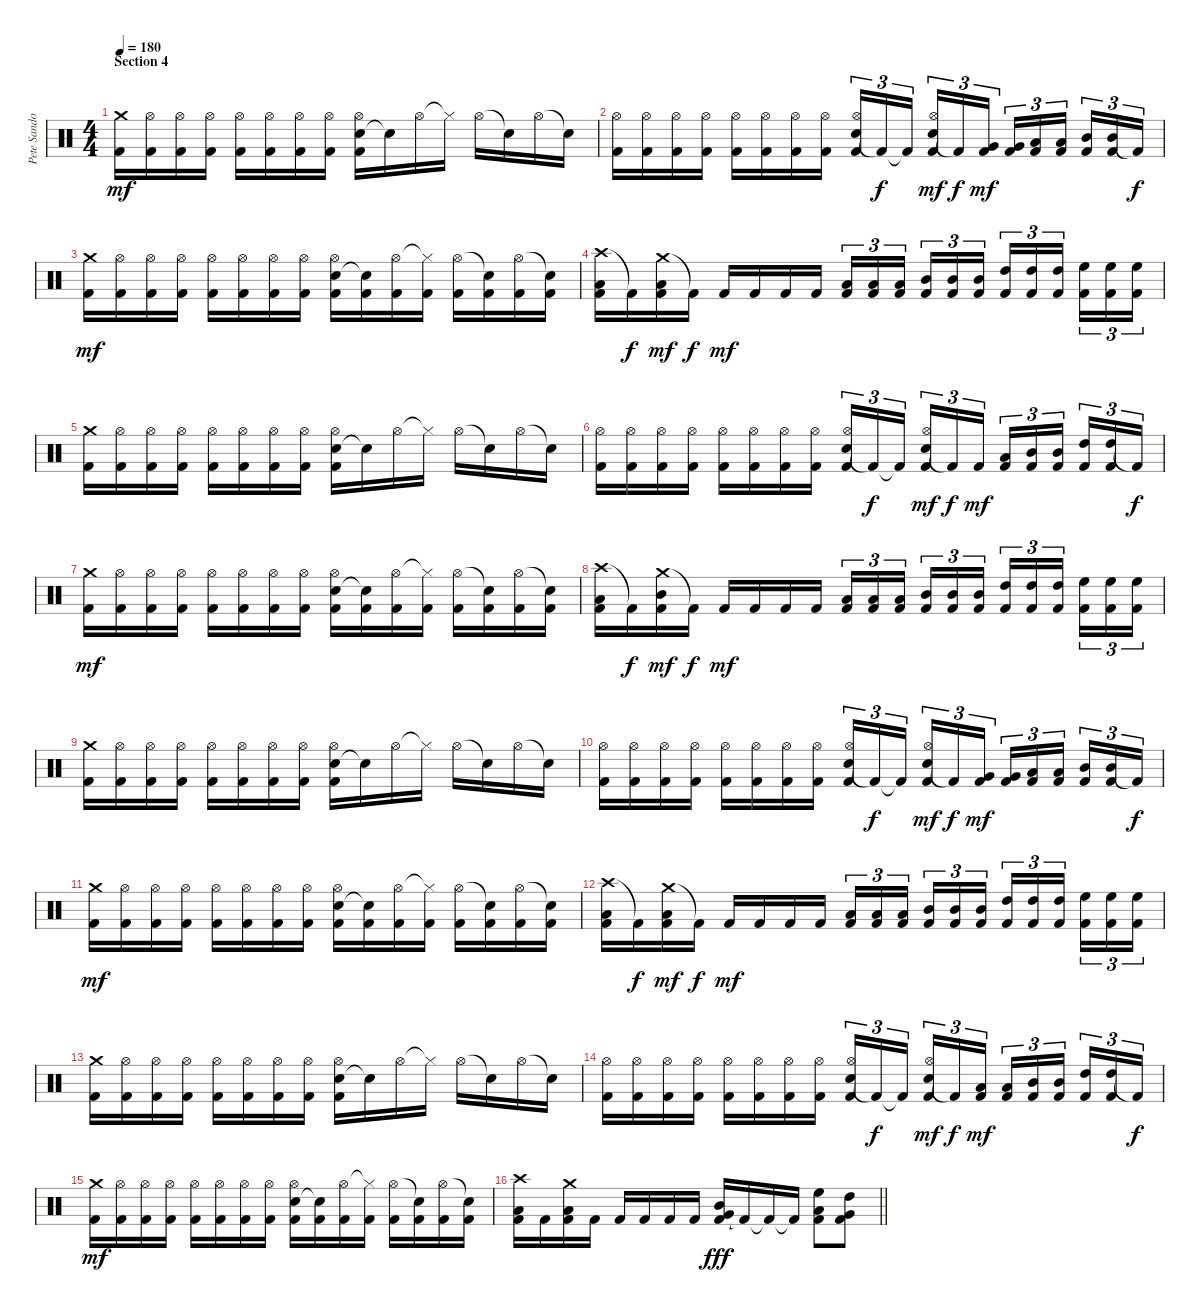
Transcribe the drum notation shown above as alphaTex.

\track ("Pete Sandoval" "Pete Sando") {instrument percussion}
\staff {score}
\articulation defaults
\ts (4 4)
\section ("" "Section 4")
\tempo 180
\clef neutral
\ks c
("Crash medium (hit)" "Kick (hit) 2").16{dy mf} ("Hi-Hat (open)" "Kick (hit) 2").16 ("Hi-Hat (open)" "Kick (hit) 2").16 ("Hi-Hat (open)" "Kick (hit) 2").16 ("Hi-Hat (open)" "Kick (hit) 2").16 ("Hi-Hat (open)" "Kick (hit) 2").16 ("Hi-Hat (open)" "Kick (hit) 2").16 ("Hi-Hat (open)" "Kick (hit) 2").16 ("Snare (hit) 2" "Hi-Hat (open)" "Kick (hit) 2").16 "Snare (hit)"{t}.16 "Hi-Hat (open)".16 "Hi-Hat (closed)"{t}.16 "Hi-Hat (open)".16 "Snare (hit)"{t}.16 "Hi-Hat (open)".16 "Snare (hit)"{t}.16 |
("Hi-Hat (open)" "Kick (hit) 2").16 ("Hi-Hat (open)" "Kick (hit) 2").16 ("Hi-Hat (open)" "Kick (hit) 2").16 ("Hi-Hat (open)" "Kick (hit) 2").16 ("Hi-Hat (open)" "Kick (hit) 2").16 ("Hi-Hat (open)" "Kick (hit) 2").16 ("Hi-Hat (open)" "Kick (hit) 2").16 ("Hi-Hat (open)" "Kick (hit) 2").16 ("Snare (hit) 2" "Hi-Hat (open)" "Kick (hit) 2").16{tu (3 2)} "Kick (hit) 2"{t}.16{tu (3 2) dy f} "Kick (hit) 2"{t}.16{tu (3 2) beam splitsecondary} ("Snare (hit) 2" "Hi-Hat (open)" "Kick (hit) 2").16{tu (3 2) dy mf} "Kick (hit) 2"{t}.16{tu (3 2) dy f} ("Very Low Tom (hit)" "Kick (hit) 2").16{tu (3 2) dy mf} ("Very Low Tom (hit)" "Kick (hit) 2").16{tu (3 2)} ("Low Tom (hit)" "Kick (hit) 2").16{tu (3 2)} ("Low Tom (hit)" "Kick (hit) 2").16{tu (3 2) beam splitsecondary} ("Mid Tom (hit)" "Kick (hit) 2").16{tu (3 2)} ("Mid Tom (hit)" "Kick (hit) 2").16{tu (3 2)} "Kick (hit) 2"{t}.16{tu (3 2) dy f} |
("Crash medium (hit)" "Kick (hit) 2").16{dy mf} ("Hi-Hat (open)" "Kick (hit) 2").16 ("Hi-Hat (open)" "Kick (hit) 2").16 ("Hi-Hat (open)" "Kick (hit) 2").16 ("Hi-Hat (open)" "Kick (hit) 2").16 ("Hi-Hat (open)" "Kick (hit) 2").16 ("Hi-Hat (open)" "Kick (hit) 2").16 ("Hi-Hat (open)" "Kick (hit) 2").16 ("Snare (hit) 2" "Hi-Hat (open)" "Kick (hit) 2").16 ("Snare (hit)"{t} "Kick (hit) 2").16 ("Hi-Hat (open)" "Kick (hit) 2").16 ("Hi-Hat (closed)"{t} "Kick (hit) 2").16 ("Hi-Hat (open)" "Kick (hit) 2").16 ("Snare (hit)"{t} "Kick (hit) 2").16 ("Hi-Hat (open)" "Kick (hit) 2").16 ("Snare (hit)"{t} "Kick (hit) 2").16 |
("Crash high (hit)" "Low Tom (hit)" "Kick (hit) 2").16 "Kick (hit) 2"{t}.16{dy f} ("Crash medium (hit)" "Low Tom (hit)" "Kick (hit) 2").16{dy mf} "Kick (hit) 2"{t}.16{dy f} "Kick (hit) 2".16{dy mf} "Kick (hit) 2".16 "Kick (hit) 2".16 "Kick (hit) 2".16 ("Low Tom (hit)" "Kick (hit) 2").16{tu (3 2)} ("Low Tom (hit)" "Kick (hit) 2").16{tu (3 2)} ("Low Tom (hit)" "Kick (hit) 2").16{tu (3 2) beam splitsecondary} ("Mid Tom (hit)" "Kick (hit) 2").16{tu (3 2)} ("Mid Tom (hit)" "Kick (hit) 2").16{tu (3 2)} ("Mid Tom (hit)" "Kick (hit) 2").16{tu (3 2)} ("High Tom (hit)" "Kick (hit) 2").16{tu (3 2)} ("High Tom (hit)" "Kick (hit) 2").16{tu (3 2)} ("High Tom (hit)" "Kick (hit) 2").16{tu (3 2) beam splitsecondary} ("High Floor Tom (hit)" "Kick (hit) 2").16{tu (3 2)} ("High Floor Tom (hit)" "Kick (hit) 2").16{tu (3 2)} ("High Floor Tom (hit)" "Kick (hit) 2").16{tu (3 2)} |
("Crash medium (hit)" "Kick (hit) 2").16 ("Hi-Hat (open)" "Kick (hit) 2").16 ("Hi-Hat (open)" "Kick (hit) 2").16 ("Hi-Hat (open)" "Kick (hit) 2").16 ("Hi-Hat (open)" "Kick (hit) 2").16 ("Hi-Hat (open)" "Kick (hit) 2").16 ("Hi-Hat (open)" "Kick (hit) 2").16 ("Hi-Hat (open)" "Kick (hit) 2").16 ("Snare (hit) 2" "Hi-Hat (open)" "Kick (hit) 2").16 "Snare (hit)"{t}.16 "Hi-Hat (open)".16 "Hi-Hat (closed)"{t}.16 "Hi-Hat (open)".16 "Snare (hit)"{t}.16 "Hi-Hat (open)".16 "Snare (hit)"{t}.16 |
("Hi-Hat (open)" "Kick (hit) 2").16 ("Hi-Hat (open)" "Kick (hit) 2").16 ("Hi-Hat (open)" "Kick (hit) 2").16 ("Hi-Hat (open)" "Kick (hit) 2").16 ("Hi-Hat (open)" "Kick (hit) 2").16 ("Hi-Hat (open)" "Kick (hit) 2").16 ("Hi-Hat (open)" "Kick (hit) 2").16 ("Hi-Hat (open)" "Kick (hit) 2").16 ("Snare (hit) 2" "Hi-Hat (open)" "Kick (hit) 2").16{tu (3 2)} "Kick (hit) 2"{t}.16{tu (3 2) dy f} "Kick (hit) 2"{t}.16{tu (3 2) beam splitsecondary} ("Snare (hit) 2" "Hi-Hat (open)" "Kick (hit) 2").16{tu (3 2) dy mf} "Kick (hit) 2"{t}.16{tu (3 2) dy f} "Kick (hit) 2".16{tu (3 2) dy mf} ("Low Tom (hit)" "Kick (hit) 2").16{tu (3 2)} ("Mid Tom (hit)" "Kick (hit) 2").16{tu (3 2)} ("Mid Tom (hit)" "Kick (hit) 2").16{tu (3 2) beam splitsecondary} ("High Tom (hit)" "Kick (hit) 2").16{tu (3 2)} ("High Tom (hit)" "Kick (hit) 2").16{tu (3 2)} "Kick (hit) 2"{t}.16{tu (3 2) dy f} |
("Crash medium (hit)" "Kick (hit) 2").16{dy mf} ("Hi-Hat (open)" "Kick (hit) 2").16 ("Hi-Hat (open)" "Kick (hit) 2").16 ("Hi-Hat (open)" "Kick (hit) 2").16 ("Hi-Hat (open)" "Kick (hit) 2").16 ("Hi-Hat (open)" "Kick (hit) 2").16 ("Hi-Hat (open)" "Kick (hit) 2").16 ("Hi-Hat (open)" "Kick (hit) 2").16 ("Snare (hit) 2" "Hi-Hat (open)" "Kick (hit) 2").16 ("Snare (hit)"{t} "Kick (hit) 2").16 ("Hi-Hat (open)" "Kick (hit) 2").16 ("Hi-Hat (closed)"{t} "Kick (hit) 2").16 ("Hi-Hat (open)" "Kick (hit) 2").16 ("Snare (hit)"{t} "Kick (hit) 2").16 ("Hi-Hat (open)" "Kick (hit) 2").16 ("Snare (hit)"{t} "Kick (hit) 2").16 |
("Crash high (hit)" "Low Tom (hit)" "Kick (hit) 2").16 "Kick (hit) 2"{t}.16{dy f} ("Crash medium (hit)" "Mid Tom (hit)" "Kick (hit) 2").16{dy mf} "Kick (hit) 2"{t}.16{dy f} "Kick (hit) 2".16{dy mf} "Kick (hit) 2".16 "Kick (hit) 2".16 "Kick (hit) 2".16 ("Low Tom (hit)" "Kick (hit) 2").16{tu (3 2)} ("Low Tom (hit)" "Kick (hit) 2").16{tu (3 2)} ("Low Tom (hit)" "Kick (hit) 2").16{tu (3 2) beam splitsecondary} ("Mid Tom (hit)" "Kick (hit) 2").16{tu (3 2)} ("Mid Tom (hit)" "Kick (hit) 2").16{tu (3 2)} ("Mid Tom (hit)" "Kick (hit) 2").16{tu (3 2)} ("High Tom (hit)" "Kick (hit) 2").16{tu (3 2)} ("High Tom (hit)" "Kick (hit) 2").16{tu (3 2)} ("High Tom (hit)" "Kick (hit) 2").16{tu (3 2) beam splitsecondary} ("High Floor Tom (hit)" "Kick (hit) 2").16{tu (3 2)} ("High Floor Tom (hit)" "Kick (hit) 2").16{tu (3 2)} ("High Floor Tom (hit)" "Kick (hit) 2").16{tu (3 2)} |
("Crash medium (hit)" "Kick (hit) 2").16 ("Hi-Hat (open)" "Kick (hit) 2").16 ("Hi-Hat (open)" "Kick (hit) 2").16 ("Hi-Hat (open)" "Kick (hit) 2").16 ("Hi-Hat (open)" "Kick (hit) 2").16 ("Hi-Hat (open)" "Kick (hit) 2").16 ("Hi-Hat (open)" "Kick (hit) 2").16 ("Hi-Hat (open)" "Kick (hit) 2").16 ("Snare (hit) 2" "Hi-Hat (open)" "Kick (hit) 2").16 "Snare (hit)"{t}.16 "Hi-Hat (open)".16 "Hi-Hat (closed)"{t}.16 "Hi-Hat (open)".16 "Snare (hit)"{t}.16 "Hi-Hat (open)".16 "Snare (hit)"{t}.16 |
("Hi-Hat (open)" "Kick (hit) 2").16 ("Hi-Hat (open)" "Kick (hit) 2").16 ("Hi-Hat (open)" "Kick (hit) 2").16 ("Hi-Hat (open)" "Kick (hit) 2").16 ("Hi-Hat (open)" "Kick (hit) 2").16 ("Hi-Hat (open)" "Kick (hit) 2").16 ("Hi-Hat (open)" "Kick (hit) 2").16 ("Hi-Hat (open)" "Kick (hit) 2").16 ("Snare (hit) 2" "Hi-Hat (open)" "Kick (hit) 2").16{tu (3 2)} "Kick (hit) 2"{t}.16{tu (3 2) dy f} "Kick (hit) 2"{t}.16{tu (3 2) beam splitsecondary} ("Snare (hit) 2" "Hi-Hat (open)" "Kick (hit) 2").16{tu (3 2) dy mf} "Kick (hit) 2"{t}.16{tu (3 2) dy f} ("Very Low Tom (hit)" "Kick (hit) 2").16{tu (3 2) dy mf} ("Very Low Tom (hit)" "Kick (hit) 2").16{tu (3 2)} ("Low Tom (hit)" "Kick (hit) 2").16{tu (3 2)} ("Low Tom (hit)" "Kick (hit) 2").16{tu (3 2) beam splitsecondary} ("Mid Tom (hit)" "Kick (hit) 2").16{tu (3 2)} ("Mid Tom (hit)" "Kick (hit) 2").16{tu (3 2)} "Kick (hit) 2"{t}.16{tu (3 2) dy f} |
("Crash medium (hit)" "Kick (hit) 2").16{dy mf} ("Hi-Hat (open)" "Kick (hit) 2").16 ("Hi-Hat (open)" "Kick (hit) 2").16 ("Hi-Hat (open)" "Kick (hit) 2").16 ("Hi-Hat (open)" "Kick (hit) 2").16 ("Hi-Hat (open)" "Kick (hit) 2").16 ("Hi-Hat (open)" "Kick (hit) 2").16 ("Hi-Hat (open)" "Kick (hit) 2").16 ("Snare (hit) 2" "Hi-Hat (open)" "Kick (hit) 2").16 ("Snare (hit)"{t} "Kick (hit) 2").16 ("Hi-Hat (open)" "Kick (hit) 2").16 ("Hi-Hat (closed)"{t} "Kick (hit) 2").16 ("Hi-Hat (open)" "Kick (hit) 2").16 ("Snare (hit)"{t} "Kick (hit) 2").16 ("Hi-Hat (open)" "Kick (hit) 2").16 ("Snare (hit)"{t} "Kick (hit) 2").16 |
("Crash high (hit)" "Low Tom (hit)" "Kick (hit) 2").16 "Kick (hit) 2"{t}.16{dy f} ("Crash medium (hit)" "Low Tom (hit)" "Kick (hit) 2").16{dy mf} "Kick (hit) 2"{t}.16{dy f} "Kick (hit) 2".16{dy mf} "Kick (hit) 2".16 "Kick (hit) 2".16 "Kick (hit) 2".16 ("Low Tom (hit)" "Kick (hit) 2").16{tu (3 2)} ("Low Tom (hit)" "Kick (hit) 2").16{tu (3 2)} ("Low Tom (hit)" "Kick (hit) 2").16{tu (3 2) beam splitsecondary} ("Mid Tom (hit)" "Kick (hit) 2").16{tu (3 2)} ("Mid Tom (hit)" "Kick (hit) 2").16{tu (3 2)} ("Mid Tom (hit)" "Kick (hit) 2").16{tu (3 2)} ("High Tom (hit)" "Kick (hit) 2").16{tu (3 2)} ("High Tom (hit)" "Kick (hit) 2").16{tu (3 2)} ("High Tom (hit)" "Kick (hit) 2").16{tu (3 2) beam splitsecondary} ("High Floor Tom (hit)" "Kick (hit) 2").16{tu (3 2)} ("High Floor Tom (hit)" "Kick (hit) 2").16{tu (3 2)} ("High Floor Tom (hit)" "Kick (hit) 2").16{tu (3 2)} |
("Crash medium (hit)" "Kick (hit) 2").16 ("Hi-Hat (open)" "Kick (hit) 2").16 ("Hi-Hat (open)" "Kick (hit) 2").16 ("Hi-Hat (open)" "Kick (hit) 2").16 ("Hi-Hat (open)" "Kick (hit) 2").16 ("Hi-Hat (open)" "Kick (hit) 2").16 ("Hi-Hat (open)" "Kick (hit) 2").16 ("Hi-Hat (open)" "Kick (hit) 2").16 ("Snare (hit) 2" "Hi-Hat (open)" "Kick (hit) 2").16 "Snare (hit)"{t}.16 "Hi-Hat (open)".16 "Hi-Hat (closed)"{t}.16 "Hi-Hat (open)".16 "Snare (hit)"{t}.16 "Hi-Hat (open)".16 "Snare (hit)"{t}.16 |
("Hi-Hat (open)" "Kick (hit) 2").16 ("Hi-Hat (open)" "Kick (hit) 2").16 ("Hi-Hat (open)" "Kick (hit) 2").16 ("Hi-Hat (open)" "Kick (hit) 2").16 ("Hi-Hat (open)" "Kick (hit) 2").16 ("Hi-Hat (open)" "Kick (hit) 2").16 ("Hi-Hat (open)" "Kick (hit) 2").16 ("Hi-Hat (open)" "Kick (hit) 2").16 ("Snare (hit) 2" "Hi-Hat (open)" "Kick (hit) 2").16{tu (3 2)} "Kick (hit) 2"{t}.16{tu (3 2) dy f} "Kick (hit) 2"{t}.16{tu (3 2) beam splitsecondary} ("Snare (hit) 2" "Hi-Hat (open)" "Kick (hit) 2").16{tu (3 2) dy mf} "Kick (hit) 2"{t}.16{tu (3 2) dy f} ("Low Tom (hit)" "Kick (hit) 2").16{tu (3 2) dy mf} ("Low Tom (hit)" "Kick (hit) 2").16{tu (3 2)} ("Mid Tom (hit)" "Kick (hit) 2").16{tu (3 2)} ("Mid Tom (hit)" "Kick (hit) 2").16{tu (3 2) beam splitsecondary} ("High Tom (hit)" "Kick (hit) 2").16{tu (3 2)} ("High Tom (hit)" "Kick (hit) 2").16{tu (3 2)} "Kick (hit) 2"{t}.16{tu (3 2) dy f} |
("Crash medium (hit)" "Kick (hit) 2").16{dy mf} ("Hi-Hat (open)" "Kick (hit) 2").16 ("Hi-Hat (open)" "Kick (hit) 2").16 ("Hi-Hat (open)" "Kick (hit) 2").16 ("Hi-Hat (open)" "Kick (hit) 2").16 ("Hi-Hat (open)" "Kick (hit) 2").16 ("Hi-Hat (open)" "Kick (hit) 2").16 ("Hi-Hat (open)" "Kick (hit) 2").16 ("Snare (hit) 2" "Hi-Hat (open)" "Kick (hit) 2").16 ("Snare (hit)"{t} "Kick (hit) 2").16 ("Hi-Hat (open)" "Kick (hit) 2").16 ("Hi-Hat (closed)"{t} "Kick (hit) 2").16 ("Hi-Hat (open)" "Kick (hit) 2").16 ("Snare (hit)"{t} "Kick (hit) 2").16 ("Hi-Hat (open)" "Kick (hit) 2").16 ("Snare (hit)"{t} "Kick (hit) 2").16 |
\barLineRight lightlight
("Crash high (hit)" "Low Tom (hit)" "Kick (hit) 2").16 "Kick (hit) 2".16 ("Crash medium (hit)" "Low Tom (hit)" "Kick (hit) 2").16 "Kick (hit) 2".16 "Kick (hit) 2".16 "Kick (hit) 2".16 "Kick (hit) 2".16 "Kick (hit) 2".16 ("Very Low Tom (hit)" "Mid Tom (hit)" "Kick (hit) 2").16{dy fff} "Kick (hit) 2"{t}.16 "Kick (hit) 2"{t}.16 "Kick (hit) 2"{t}.16 ("High Floor Tom (hit)" "Low Tom (hit)" "Kick (hit) 2").8 ("High Tom (hit)" "Very Low Tom (hit)" "Kick (hit) 2").8
